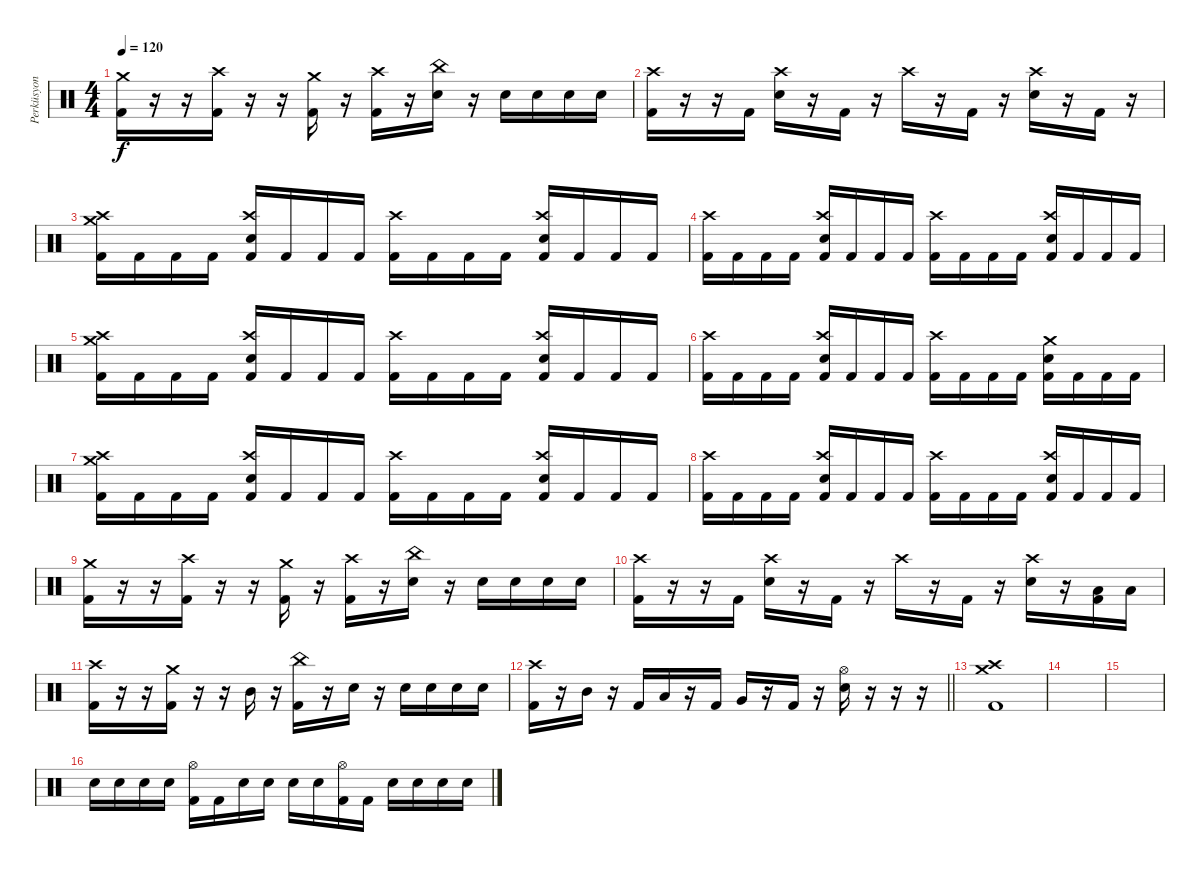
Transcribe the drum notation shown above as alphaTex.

\track ("Perküsyon" "Perküsyon") {instrument percussion}
\staff {score}
\articulation defaults
\ts (4 4)
\tempo 120
\clef neutral
\ks c
("Crash medium (hit)" "Kick (hit) 2").16{dy f} r.16 r.16 ("Crash high (hit)" "Kick (hit) 2").16 r.16 r.16 ("Crash medium (hit)" "Kick (hit) 2").16 r.16 ("Crash high (hit)" "Kick (hit) 2").16 r.16 ("China (hit)" "Snare (hit) 2").16 r.16 "Snare (hit) 2".16 "Snare (hit) 2".16 "Snare (hit) 2".16 "Snare (hit) 2".16 |
("Crash high (hit)" "Kick (hit) 2").16 r.16 r.16 "Kick (hit) 2".16 ("Crash high (hit)" "Snare (hit) 2").16 r.16 "Kick (hit) 2".16 r.16 "Crash high (hit)".16 r.16 "Kick (hit) 2".16 r.16 ("Crash high (hit)" "Snare (hit) 2").16 r.16 "Kick (hit) 2".16 r.16 |
("Crash high (hit)" "Crash medium (hit)" "Kick (hit) 2").16 "Kick (hit) 2".16 "Kick (hit) 2".16 "Kick (hit) 2".16 ("Crash high (hit)" "Snare (hit) 2" "Kick (hit) 2").16 "Kick (hit) 2".16 "Kick (hit) 2".16 "Kick (hit) 2".16 ("Crash high (hit)" "Kick (hit) 2").16 "Kick (hit) 2".16 "Kick (hit) 2".16 "Kick (hit) 2".16 ("Crash high (hit)" "Snare (hit) 2" "Kick (hit) 2").16 "Kick (hit) 2".16 "Kick (hit) 2".16 "Kick (hit) 2".16 |
("Crash high (hit)" "Kick (hit) 2").16 "Kick (hit) 2".16 "Kick (hit) 2".16 "Kick (hit) 2".16 ("Crash high (hit)" "Snare (hit) 2" "Kick (hit) 2").16 "Kick (hit) 2".16 "Kick (hit) 2".16 "Kick (hit) 2".16 ("Crash high (hit)" "Kick (hit) 2").16 "Kick (hit) 2".16 "Kick (hit) 2".16 "Kick (hit) 2".16 ("Crash high (hit)" "Snare (hit) 2" "Kick (hit) 2").16 "Kick (hit) 2".16 "Kick (hit) 2".16 "Kick (hit) 2".16 |
("Crash high (hit)" "Crash medium (hit)" "Kick (hit) 2").16 "Kick (hit) 2".16 "Kick (hit) 2".16 "Kick (hit) 2".16 ("Crash high (hit)" "Snare (hit) 2" "Kick (hit) 2").16 "Kick (hit) 2".16 "Kick (hit) 2".16 "Kick (hit) 2".16 ("Crash high (hit)" "Kick (hit) 2").16 "Kick (hit) 2".16 "Kick (hit) 2".16 "Kick (hit) 2".16 ("Crash high (hit)" "Snare (hit) 2" "Kick (hit) 2").16 "Kick (hit) 2".16 "Kick (hit) 2".16 "Kick (hit) 2".16 |
("Crash high (hit)" "Kick (hit) 2").16 "Kick (hit) 2".16 "Kick (hit) 2".16 "Kick (hit) 2".16 ("Crash high (hit)" "Snare (hit) 2" "Kick (hit) 2").16 "Kick (hit) 2".16 "Kick (hit) 2".16 "Kick (hit) 2".16 ("Crash high (hit)" "Kick (hit) 2").16 "Kick (hit) 2".16 "Kick (hit) 2".16 "Kick (hit) 2".16 ("Crash medium (hit)" "Snare (hit) 2" "Kick (hit) 2").16 "Kick (hit) 2".16 "Kick (hit) 2".16 "Kick (hit) 2".16 |
("Crash high (hit)" "Crash medium (hit)" "Kick (hit) 2").16 "Kick (hit) 2".16 "Kick (hit) 2".16 "Kick (hit) 2".16 ("Crash high (hit)" "Snare (hit) 2" "Kick (hit) 2").16 "Kick (hit) 2".16 "Kick (hit) 2".16 "Kick (hit) 2".16 ("Crash high (hit)" "Kick (hit) 2").16 "Kick (hit) 2".16 "Kick (hit) 2".16 "Kick (hit) 2".16 ("Crash high (hit)" "Snare (hit) 2" "Kick (hit) 2").16 "Kick (hit) 2".16 "Kick (hit) 2".16 "Kick (hit) 2".16 |
("Crash high (hit)" "Kick (hit) 2").16 "Kick (hit) 2".16 "Kick (hit) 2".16 "Kick (hit) 2".16 ("Crash high (hit)" "Snare (hit) 2" "Kick (hit) 2").16 "Kick (hit) 2".16 "Kick (hit) 2".16 "Kick (hit) 2".16 ("Crash high (hit)" "Kick (hit) 2").16 "Kick (hit) 2".16 "Kick (hit) 2".16 "Kick (hit) 2".16 ("Crash high (hit)" "Snare (hit) 2" "Kick (hit) 2").16 "Kick (hit) 2".16 "Kick (hit) 2".16 "Kick (hit) 2".16 |
("Crash medium (hit)" "Kick (hit) 2").16 r.16 r.16 ("Crash high (hit)" "Kick (hit) 2").16 r.16 r.16 ("Crash medium (hit)" "Kick (hit) 2").16 r.16 ("Crash high (hit)" "Kick (hit) 2").16 r.16 ("China (hit)" "Snare (hit) 2").16 r.16 "Snare (hit) 2".16 "Snare (hit) 2".16 "Snare (hit) 2".16 "Snare (hit) 2".16 |
("Crash high (hit)" "Kick (hit) 2").16 r.16 r.16 "Kick (hit) 2".16 ("Crash high (hit)" "Snare (hit) 2").16 r.16 "Kick (hit) 2".16 r.16 "Crash high (hit)".16 r.16 "Kick (hit) 2".16 r.16 ("Crash high (hit)" "Snare (hit) 2").16 r.16 ("Low Floor Tom (hit)" "Kick (hit) 2").16 "Low Floor Tom (hit)".16 |
("Crash high (hit)" "Kick (hit) 2").16 r.16 r.16 ("Crash medium (hit)" "Kick (hit) 2").16 r.16 r.16 "Mid Tom (hit)".16 r.16 ("China (hit)" "Kick (hit) 2").16 r.16 "Snare (hit) 2".16 r.16 "Snare (hit) 2".16 "Snare (hit) 2".16 "Snare (hit) 2".16 "Snare (hit) 2".16 |
\barLineRight lightlight
("Crash high (hit)" "Kick (hit) 2").16 r.16 "Mid Tom (hit)".16 r.16 "Kick (hit) 2".16 "Low Tom (hit)".16 r.16 "Kick (hit) 2".16 "Very Low Tom (hit)".16 r.16 "Kick (hit) 2".16 r.16 ("Hi-Hat (open)" "Snare (hit) 2").16 r.16 r.16 r.16 |
("Crash high (hit)" "Crash medium (hit)" "Kick (hit) 2").1 |
|
|
"Snare (hit) 2".16 "Snare (hit) 2".16 "Snare (hit) 2".16 "Snare (hit) 2".16 ("Hi-Hat (open)" "Kick (hit) 2").16 "Kick (hit) 2".16 "Snare (hit) 2".16 "Snare (hit) 2".16 "Snare (hit) 2".16 "Snare (hit) 2".16 ("Hi-Hat (open)" "Kick (hit) 2").16 "Kick (hit) 2".16 "Snare (hit) 2".16 "Snare (hit) 2".16 "Snare (hit) 2".16 "Snare (hit) 2".16
